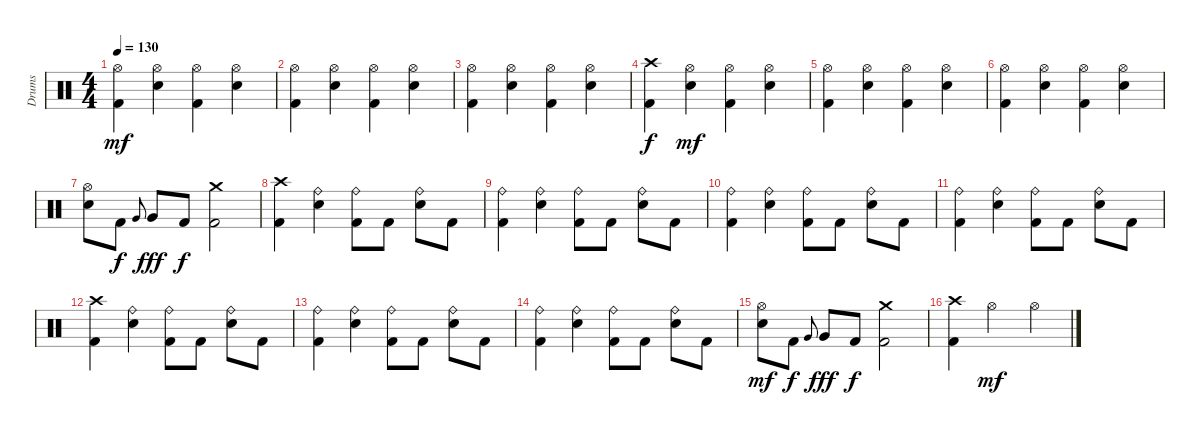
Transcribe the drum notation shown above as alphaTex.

\track ("Drums" "Drums") {instrument percussion}
\staff {score}
\articulation defaults
\ts (4 4)
\tempo 130
\clef neutral
\ks c
("Hi-Hat (open)" "Kick (hit) 2").4{dy mf} ("Hi-Hat (open)" "Electric Snare (hit)").4 ("Hi-Hat (open)" "Kick (hit) 2").4 ("Hi-Hat (open)" "Electric Snare (hit)").4 |
("Hi-Hat (open)" "Kick (hit) 2").4 ("Hi-Hat (open)" "Electric Snare (hit)").4 ("Hi-Hat (open)" "Kick (hit) 2").4 ("Hi-Hat (open)" "Electric Snare (hit)").4 |
("Hi-Hat (open)" "Kick (hit) 2").4 ("Hi-Hat (open)" "Electric Snare (hit)").4 ("Hi-Hat (open)" "Kick (hit) 2").4 ("Hi-Hat (open)" "Electric Snare (hit)").4 |
("Crash high (hit)" "Kick (hit) 2").4{dy f} ("Hi-Hat (open)" "Electric Snare (hit)").4{dy mf} ("Hi-Hat (open)" "Kick (hit) 2").4 ("Hi-Hat (open)" "Electric Snare (hit)").4 |
("Hi-Hat (open)" "Kick (hit) 2").4 ("Hi-Hat (open)" "Electric Snare (hit)").4 ("Hi-Hat (open)" "Kick (hit) 2").4 ("Hi-Hat (open)" "Electric Snare (hit)").4 |
("Hi-Hat (open)" "Kick (hit) 2").4 ("Hi-Hat (open)" "Electric Snare (hit)").4 ("Hi-Hat (open)" "Kick (hit) 2").4 ("Hi-Hat (open)" "Electric Snare (hit)").4 |
("Hi-Hat (open)" "Electric Snare (hit)").8 "Kick (hit) 2".8{dy f} "Very Low Tom (hit)".8{gr onbeat} "Very Low Tom (hit)".8{dy fff} "Kick (hit) 2".8{dy f} ("Crash medium (hit)" "Kick (hit) 2").2 |
("Crash high (hit)" "Kick (hit) 2").4 ("Ride (bell)" "Electric Snare (hit)").4 ("Ride (bell)" "Kick (hit) 2").8 "Kick (hit) 2".8 ("Ride (bell)" "Electric Snare (hit)").8 "Kick (hit) 2".8 |
("Ride (bell)" "Kick (hit) 2").4 ("Ride (bell)" "Electric Snare (hit)").4 ("Ride (bell)" "Kick (hit) 2").8 "Kick (hit) 2".8 ("Ride (bell)" "Electric Snare (hit)").8 "Kick (hit) 2".8 |
("Ride (bell)" "Kick (hit) 2").4 ("Ride (bell)" "Electric Snare (hit)").4 ("Ride (bell)" "Kick (hit) 2").8 "Kick (hit) 2".8 ("Ride (bell)" "Electric Snare (hit)").8 "Kick (hit) 2".8 |
("Ride (bell)" "Kick (hit) 2").4 ("Ride (bell)" "Electric Snare (hit)").4 ("Ride (bell)" "Kick (hit) 2").8 "Kick (hit) 2".8 ("Ride (bell)" "Electric Snare (hit)").8 "Kick (hit) 2".8 |
("Crash high (hit)" "Kick (hit) 2").4 ("Ride (bell)" "Electric Snare (hit)").4 ("Ride (bell)" "Kick (hit) 2").8 "Kick (hit) 2".8 ("Ride (bell)" "Electric Snare (hit)").8 "Kick (hit) 2".8 |
("Ride (bell)" "Kick (hit) 2").4 ("Ride (bell)" "Electric Snare (hit)").4 ("Ride (bell)" "Kick (hit) 2").8 "Kick (hit) 2".8 ("Ride (bell)" "Electric Snare (hit)").8 "Kick (hit) 2".8 |
("Ride (bell)" "Kick (hit) 2").4 ("Ride (bell)" "Electric Snare (hit)").4 ("Ride (bell)" "Kick (hit) 2").8 "Kick (hit) 2".8 ("Ride (bell)" "Electric Snare (hit)").8 "Kick (hit) 2".8 |
("Hi-Hat (open)" "Electric Snare (hit)").8{dy mf} "Kick (hit) 2".8{dy f} "Very Low Tom (hit)".8{gr onbeat} "Very Low Tom (hit)".8{dy fff} "Kick (hit) 2".8{dy f} ("Crash medium (hit)" "Kick (hit) 2").2 |
("Crash high (hit)" "Kick (hit) 2").4 "Hi-Hat (open)".2{dy mf} "Hi-Hat (open)".4
